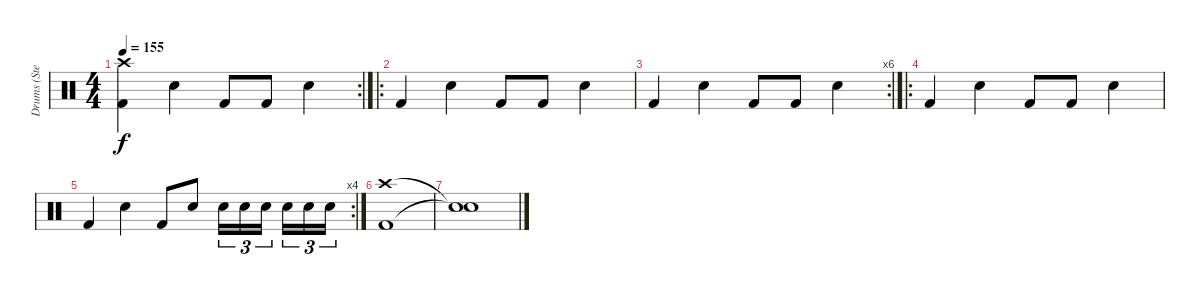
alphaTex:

\track ("Drums (Stephen Morris)" "Drums (Ste") {instrument percussion}
\staff {score}
\articulation defaults
\rc 2
\ts (4 4)
\tempo 155
\clef neutral
\ks c
("Crash high (hit)" "Kick (hit) 2").4{dy f} "Snare (hit) 2".4 "Kick (hit) 2".8 "Kick (hit) 2".8 "Snare (hit) 2".4 |
\ro "Kick (hit) 2".4 "Snare (hit) 2".4 "Kick (hit) 2".8 "Kick (hit) 2".8 "Snare (hit) 2".4
|
\rc 6 "Kick (hit) 2".4 "Snare (hit) 2".4 "Kick (hit) 2".8 "Kick (hit) 2".8 "Snare (hit) 2".4
|
\ro "Kick (hit) 2".4 "Snare (hit) 2".4 "Kick (hit) 2".8 "Kick (hit) 2".8 "Snare (hit) 2".4
|
\rc 4 "Kick (hit) 2".4 "Snare (hit) 2".4 "Kick (hit) 2".8 "Snare (hit) 2".8 "Snare (hit) 2".16{tu (3 2)} "Snare (hit) 2".16{tu (3 2)} "Snare (hit) 2".16{tu (3 2) beam splitsecondary} "Snare (hit) 2".16{tu (3 2)} "Snare (hit) 2".16{tu (3 2)} "Snare (hit) 2".16{tu (3 2)}
|
("Crash high (hit)" "Kick (hit) 2").1 |
("Snare (hit)"{t} "Snare (hit)"{t}).1
